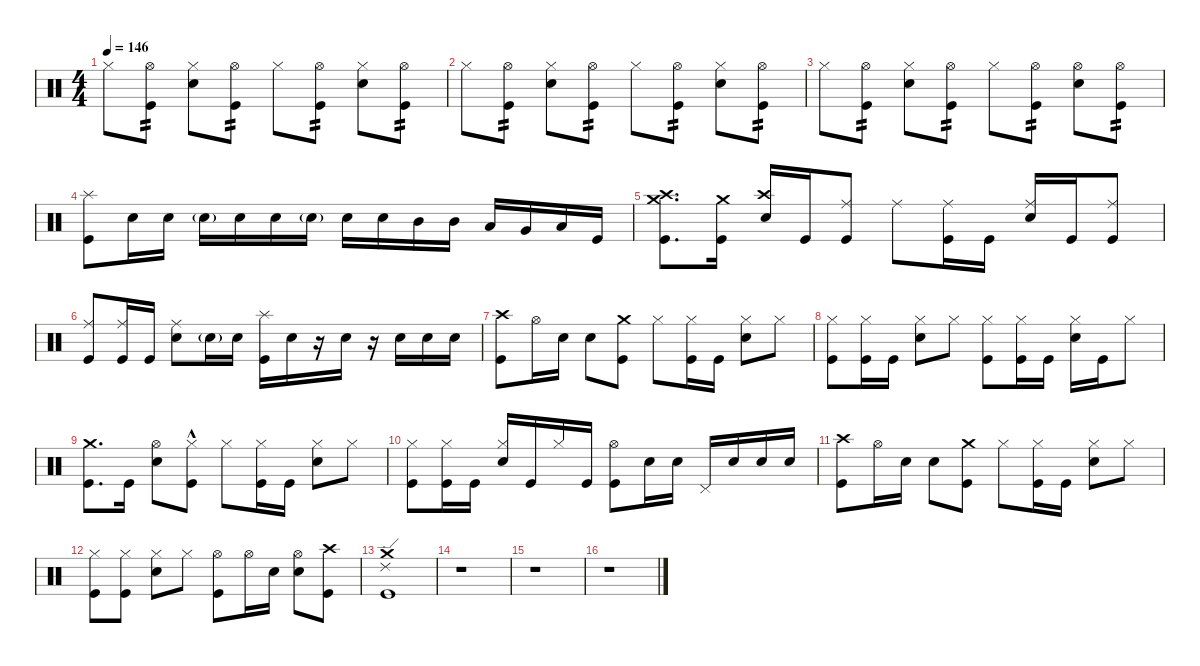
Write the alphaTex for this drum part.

\defaultSystemsLayout 4
\hideDynamics
\bracketExtendMode nobrackets
\singleTrackTrackNamePolicy hidden
\multiTrackTrackNamePolicy hidden
\firstSystemTrackNameMode fullname
\firstSystemTrackNameOrientation horizontal
\otherSystemsTrackNameOrientation horizontal
\track ("Drums" "drm.") {instrument percussion}
\staff {score}
\articulation defaults
\ts (4 4)
\tempo 146
\clef neutral
\ks c "Hi-Hat (closed)".8{dy f beam Down}
("Hi-Hat (open)" "Kick (hit)").8{tp 2 beam Down} ("Hi-Hat (closed)" "Snare (hit) 2").8{beam Down} ("Hi-Hat (open)" "Kick (hit)").8{tp 2 beam Down} "Hi-Hat (closed)".8{beam Down} ("Hi-Hat (open)" "Kick (hit)").8{tp 2 beam Down} ("Hi-Hat (closed)" "Snare (hit) 2").8{beam Down} ("Hi-Hat (open)" "Kick (hit)").8{tp 2 beam Down} |
"Hi-Hat (closed)".8{beam Down} ("Hi-Hat (open)" "Kick (hit)").8{tp 2 beam Down} ("Hi-Hat (closed)" "Snare (hit) 2").8{beam Down} ("Hi-Hat (open)" "Kick (hit)").8{tp 2 beam Down} "Hi-Hat (closed)".8{beam Down} ("Hi-Hat (open)" "Kick (hit)").8{tp 2 beam Down} ("Hi-Hat (closed)" "Snare (hit) 2").8{beam Down} ("Hi-Hat (open)" "Kick (hit)").8{tp 2 beam Down} |
"Hi-Hat (closed)".8{beam Down} ("Hi-Hat (open)" "Kick (hit)").8{tp 2 beam Down} ("Hi-Hat (closed)" "Snare (hit) 2").8{beam Down} ("Hi-Hat (open)" "Kick (hit)").8{tp 2 beam Down} "Hi-Hat (closed)".8{beam Down} ("Hi-Hat (open)" "Kick (hit)").8{tp 2 beam Down} ("Hi-Hat (open)" "Snare (hit) 2").8{beam Down} ("Hi-Hat (open)" "Kick (hit)").8{tp 2 beam Down} |
("Splash (hit)" "Kick (hit)").8{beam Down} "Snare (hit) 2".16{beam Down} "Snare (hit) 2".16{beam Down} "Snare (hit) 2"{g}.16{dy mf beam Down} "Snare (hit) 2".16{dy f beam Down} "Snare (hit) 2".16{beam Down} "Snare (hit) 2"{g}.16{dy mf beam Down} "Snare (hit) 2".16{dy f beam Down} "Snare (hit) 2".16{beam Down} "Mid Tom (hit)".16{beam Down} "Mid Tom (hit)".16{beam Down} "Low Tom (hit)".16{beam Up} "Very Low Tom (hit)".16{beam Up} "Low Floor Tom (hit)".16{beam Up} "Kick (hit)".16{beam Up} |
("Crash medium (hit)" "Crash high (hit)" "Kick (hit)").8{d beam Down} ("Crash medium (hit)" "Kick (hit)").16{beam Down} ("Crash high (hit)" "Snare (hit) 2").16{beam Up} "Kick (hit)".16{beam Up} ("Ride (middle)" "Kick (hit)").8{beam Up} "Ride (middle)".8{beam Down} ("Ride (middle)" "Kick (hit)").16{beam Down} "Kick (hit)".16{beam Down} ("Ride (middle)" "Snare (hit) 2").16{beam Up} "Kick (hit)".16{beam Up} ("Ride (middle)" "Kick (hit)").8{beam Up} |
("Ride (middle)" "Kick (hit)").8{beam Up} ("Ride (middle)" "Kick (hit)").16{beam Up} "Kick (hit)".16{beam Up} ("Ride (middle)" "Snare (hit) 2").8{beam Down} "Snare (hit) 2"{g}.16{dy mf beam Down} "Snare (hit) 2".16{dy f beam Down} ("Splash (hit)" "Kick (hit)").16{beam Down} "Snare (hit) 2".16{beam Down} r.16{beam Down} "Snare (hit) 2".16{beam Down} r.16{beam Down} "Snare (hit) 2".16{beam Down} "Snare (hit) 2".16{beam Down} "Snare (hit) 2".16{beam Down} |
("Crash high (hit)" "Kick (hit)").8{beam Down} "Hi-Hat (open)".16{beam Down} "Snare (hit) 2".16{beam Down} "Snare (hit) 2".8{beam Down} ("Crash medium (hit)" "Kick (hit)").8{beam Down} "Hi-Hat (closed)".8{beam Down} ("Hi-Hat (closed)" "Kick (hit)").16{beam Down} "Kick (hit)".16{beam Down} ("Hi-Hat (closed)" "Snare (hit) 2").8{beam Down} "Hi-Hat (closed)".8{beam Down} |
("Hi-Hat (closed)" "Kick (hit)").8{beam Down} ("Hi-Hat (closed)" "Kick (hit)").16{beam Down} "Kick (hit)".16{beam Down} ("Hi-Hat (closed)" "Snare (hit) 2").8{beam Down} "Hi-Hat (closed)".8{beam Down} ("Hi-Hat (closed)" "Kick (hit)").8{beam Down} ("Hi-Hat (closed)" "Kick (hit)").16{beam Down} "Kick (hit)".16{beam Down} ("Hi-Hat (closed)" "Snare (hit) 2").16{beam Down} "Kick (hit)".16{beam Down} "Hi-Hat (closed)".8{beam Down} |
("Crash medium (hit)" "Kick (hit)").8{d beam Down} "Kick (hit)".16{beam Down} ("Hi-Hat (open)" "Snare (hit) 2").8{beam Down} ("Hi-Hat (closed)"{hac} "Kick (hit)"{hac}).8{beam Down} "Hi-Hat (closed)".8{beam Down} ("Hi-Hat (closed)" "Kick (hit)").16{beam Down} "Kick (hit)".16{beam Down} ("Hi-Hat (closed)" "Snare (hit) 2").8{beam Down} "Hi-Hat (closed)".8{beam Down} |
("Hi-Hat (closed)" "Kick (hit)").8{beam Down} ("Hi-Hat (closed)" "Kick (hit)").16{beam Down} "Kick (hit)".16{beam Down} ("Hi-Hat (closed)" "Snare (hit) 2").16{beam Up} "Kick (hit)".16{beam Up} "Hi-Hat (closed)".16{beam Up} "Kick (hit)".16{beam Up} ("Hi-Hat (open)" "Kick (hit)").8{beam Down} "Snare (hit) 2".16{beam Down} "Snare (hit) 2".16{beam Down} "Pedal Hi-Hat (hit)".16{beam Up} "Snare (hit) 2".16{beam Up} "Snare (hit) 2".16{beam Up} "Snare (hit) 2".16{beam Up} |
("Crash high (hit)" "Kick (hit)").8{beam Down} "Hi-Hat (open)".16{beam Down} "Snare (hit) 2".16{beam Down} "Snare (hit) 2".8{beam Down} ("Crash medium (hit)" "Kick (hit)").8{beam Down} "Hi-Hat (closed)".8{beam Down} ("Hi-Hat (closed)" "Kick (hit)").16{beam Down} "Kick (hit)".16{beam Down} ("Hi-Hat (closed)" "Snare (hit) 2").8{beam Down} "Hi-Hat (closed)".8{beam Down} |
("Hi-Hat (closed)" "Kick (hit)").8{beam Down} ("Hi-Hat (closed)" "Kick (hit)").8{beam Down} ("Hi-Hat (closed)" "Snare (hit) 2").8{beam Down} "Hi-Hat (closed)".8{beam Down} ("Hi-Hat (open)" "Kick (hit)").8{beam Down} "Hi-Hat (open)".16{beam Down} "Snare (hit) 2".16{beam Down} ("Hi-Hat (open)" "Snare (hit) 2").8{beam Down} ("Crash high (hit)" "Kick (hit)").8{beam Down} |
("Crash medium (hit)" "Ride (edge) 2" "Kick (hit)").1{beam Down} |
r.1{beam Down} |
r.1{beam Down} |
r.1{beam Down}
